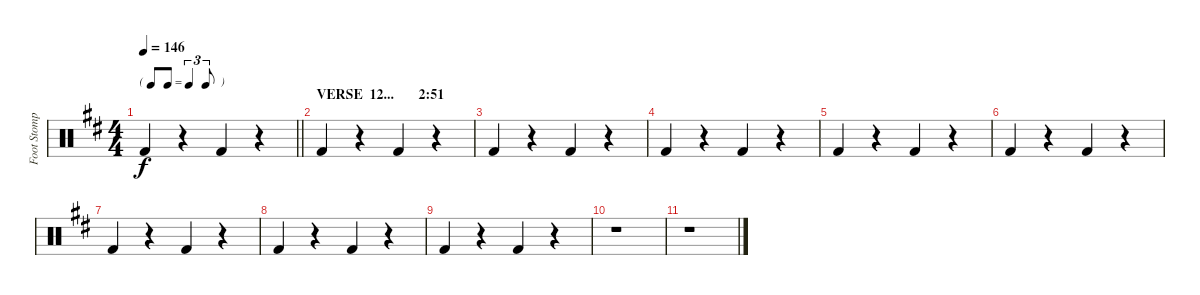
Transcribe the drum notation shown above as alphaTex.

\track ("Foot Stomp" "Foot Stomp") {instrument percussion}
\staff {score}
\articulation defaults
\ts (4 4)
\tf triplet8th
\tempo 146
\clef neutral
\barLineRight lightlight
\ks d "Kick (hit) 2".4{dy f}
r.4 "Kick (hit) 2".4 r.4 |
\section ("" "VERSE  12...       2:51")
"Kick (hit) 2".4 r.4 "Kick (hit) 2".4 r.4 |
"Kick (hit) 2".4 r.4 "Kick (hit) 2".4 r.4 |
"Kick (hit) 2".4 r.4 "Kick (hit) 2".4 r.4 |
"Kick (hit) 2".4 r.4 "Kick (hit) 2".4 r.4 |
"Kick (hit) 2".4 r.4 "Kick (hit) 2".4 r.4 |
"Kick (hit) 2".4 r.4 "Kick (hit) 2".4 r.4 |
"Kick (hit) 2".4 r.4 "Kick (hit) 2".4 r.4 |
"Kick (hit) 2".4 r.4 "Kick (hit) 2".4 r.4 |
r.1 |
r.1
